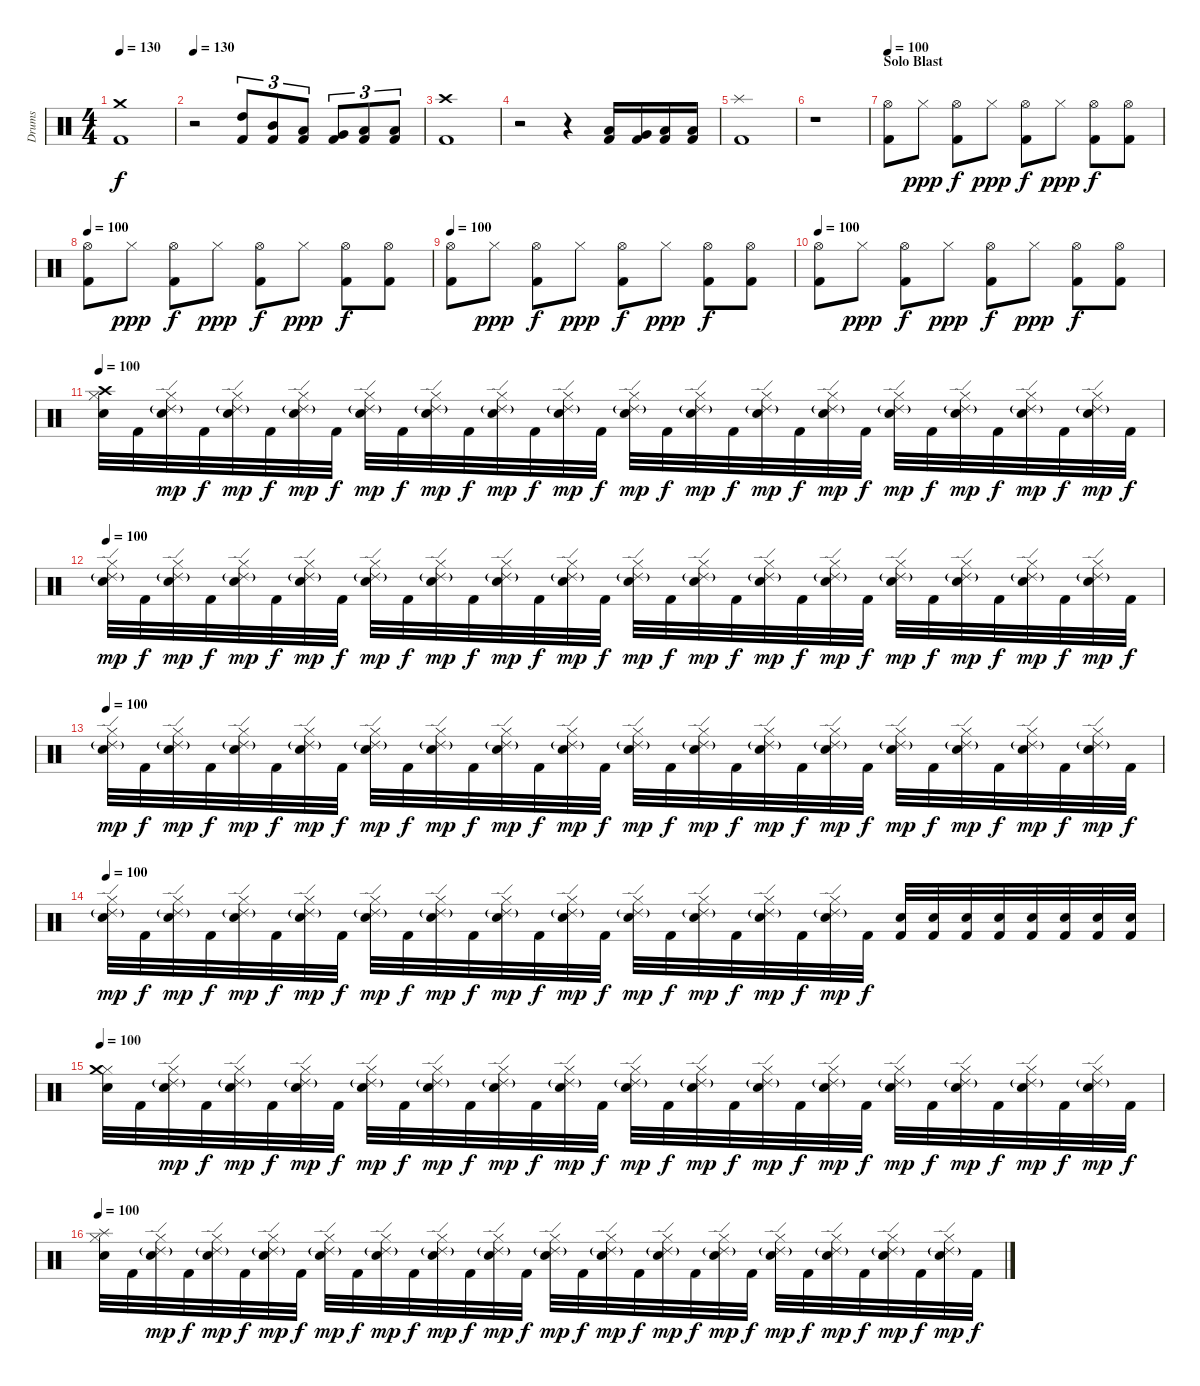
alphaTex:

\track ("Drums" "Drums") {instrument percussion}
\staff {score}
\articulation defaults
\ts (4 4)
\tempo 130
\clef neutral
\ks c
("Kick (hit) 2" "Crash medium (hit)").1{dy f} |
\tempo 130
r.2 ("Kick (hit) 2" "High Tom (hit)").8{tu (3 2)} ("Kick (hit) 2" "Mid Tom (hit)").8{tu (3 2)} ("Kick (hit) 2" "Low Tom (hit)").8{tu (3 2)} ("Kick (hit) 2" "Very Low Tom (hit)").8{tu (3 2)} ("Kick (hit) 2" "Low Floor Tom (hit)").8{tu (3 2)} ("Kick (hit) 2" "Low Floor Tom (hit)").8{tu (3 2)} |
("Kick (hit) 2" "Crash high (hit)").1 |
r.2 r.4 ("Kick (hit) 2" "Low Tom (hit)").16 ("Kick (hit) 2" "Very Low Tom (hit)").16 ("Kick (hit) 2" "Low Floor Tom (hit)").16 ("Kick (hit) 2" "Low Floor Tom (hit)").16 |
("Kick (hit) 2" "Splash (hit)").1 |
r.1 |
\section ("" "Solo Blast")
\tempo 100
("Kick (hit) 2" "Hi-Hat (open)").8 "Hi-Hat (closed)".8{dy ppp} ("Kick (hit) 2" "Hi-Hat (open)").8{dy f} "Hi-Hat (closed)".8{dy ppp} ("Kick (hit) 2" "Hi-Hat (open)").8{dy f} "Hi-Hat (closed)".8{dy ppp} ("Kick (hit) 2" "Hi-Hat (open)").8{dy f} ("Kick (hit) 2" "Hi-Hat (open)").8 |
\tempo 100
("Kick (hit) 2" "Hi-Hat (open)").8 "Hi-Hat (closed)".8{dy ppp} ("Kick (hit) 2" "Hi-Hat (open)").8{dy f} "Hi-Hat (closed)".8{dy ppp} ("Kick (hit) 2" "Hi-Hat (open)").8{dy f} "Hi-Hat (closed)".8{dy ppp} ("Kick (hit) 2" "Hi-Hat (open)").8{dy f} ("Kick (hit) 2" "Hi-Hat (open)").8 |
\tempo 100
("Kick (hit) 2" "Hi-Hat (open)").8 "Hi-Hat (closed)".8{dy ppp} ("Kick (hit) 2" "Hi-Hat (open)").8{dy f} "Hi-Hat (closed)".8{dy ppp} ("Kick (hit) 2" "Hi-Hat (open)").8{dy f} "Hi-Hat (closed)".8{dy ppp} ("Kick (hit) 2" "Hi-Hat (open)").8{dy f} ("Kick (hit) 2" "Hi-Hat (open)").8 |
\tempo 100
("Kick (hit) 2" "Hi-Hat (open)").8 "Hi-Hat (closed)".8{dy ppp} ("Kick (hit) 2" "Hi-Hat (open)").8{dy f} "Hi-Hat (closed)".8{dy ppp} ("Kick (hit) 2" "Hi-Hat (open)").8{dy f} "Hi-Hat (closed)".8{dy ppp} ("Kick (hit) 2" "Hi-Hat (open)").8{dy f} ("Kick (hit) 2" "Hi-Hat (open)").8 |
\section ("" "")
\tempo 100
("Snare (hit) 2" "Hi-Hat (closed)" "Crash high (hit)").32 "Kick (hit) 2".32 ("Snare (hit) 2" "Hi-Hat (closed)" "Ride (edge) 2"{g}).32{dy mp} "Kick (hit) 2".32{dy f} ("Snare (hit) 2" "Hi-Hat (closed)" "Ride (edge) 2"{g}).32{dy mp} "Kick (hit) 2".32{dy f} ("Snare (hit) 2" "Hi-Hat (closed)" "Ride (edge) 2"{g}).32{dy mp} "Kick (hit) 2".32{dy f} ("Snare (hit) 2" "Hi-Hat (closed)" "Ride (edge) 2"{g}).32{dy mp} "Kick (hit) 2".32{dy f} ("Snare (hit) 2" "Hi-Hat (closed)" "Ride (edge) 2"{g}).32{dy mp} "Kick (hit) 2".32{dy f} ("Snare (hit) 2" "Hi-Hat (closed)" "Ride (edge) 2"{g}).32{dy mp} "Kick (hit) 2".32{dy f} ("Snare (hit) 2" "Hi-Hat (closed)" "Ride (edge) 2"{g}).32{dy mp} "Kick (hit) 2".32{dy f} ("Snare (hit) 2" "Hi-Hat (closed)" "Ride (edge) 2"{g}).32{dy mp} "Kick (hit) 2".32{dy f} ("Snare (hit) 2" "Hi-Hat (closed)" "Ride (edge) 2"{g}).32{dy mp} "Kick (hit) 2".32{dy f} ("Snare (hit) 2" "Hi-Hat (closed)" "Ride (edge) 2"{g}).32{dy mp} "Kick (hit) 2".32{dy f} ("Snare (hit) 2" "Hi-Hat (closed)" "Ride (edge) 2"{g}).32{dy mp} "Kick (hit) 2".32{dy f} ("Snare (hit) 2" "Hi-Hat (closed)" "Ride (edge) 2"{g}).32{dy mp} "Kick (hit) 2".32{dy f} ("Snare (hit) 2" "Hi-Hat (closed)" "Ride (edge) 2"{g}).32{dy mp} "Kick (hit) 2".32{dy f} ("Snare (hit) 2" "Hi-Hat (closed)" "Ride (edge) 2"{g}).32{dy mp} "Kick (hit) 2".32{dy f} ("Snare (hit) 2" "Hi-Hat (closed)" "Ride (edge) 2"{g}).32{dy mp} "Kick (hit) 2".32{dy f} |
\tempo 100
("Snare (hit) 2" "Hi-Hat (closed)" "Ride (edge) 2"{g}).32{dy mp} "Kick (hit) 2".32{dy f} ("Snare (hit) 2" "Hi-Hat (closed)" "Ride (edge) 2"{g}).32{dy mp} "Kick (hit) 2".32{dy f} ("Snare (hit) 2" "Hi-Hat (closed)" "Ride (edge) 2"{g}).32{dy mp} "Kick (hit) 2".32{dy f} ("Snare (hit) 2" "Hi-Hat (closed)" "Ride (edge) 2"{g}).32{dy mp} "Kick (hit) 2".32{dy f} ("Snare (hit) 2" "Hi-Hat (closed)" "Ride (edge) 2"{g}).32{dy mp} "Kick (hit) 2".32{dy f} ("Snare (hit) 2" "Hi-Hat (closed)" "Ride (edge) 2"{g}).32{dy mp} "Kick (hit) 2".32{dy f} ("Snare (hit) 2" "Hi-Hat (closed)" "Ride (edge) 2"{g}).32{dy mp} "Kick (hit) 2".32{dy f} ("Snare (hit) 2" "Hi-Hat (closed)" "Ride (edge) 2"{g}).32{dy mp} "Kick (hit) 2".32{dy f} ("Snare (hit) 2" "Hi-Hat (closed)" "Ride (edge) 2"{g}).32{dy mp} "Kick (hit) 2".32{dy f} ("Snare (hit) 2" "Hi-Hat (closed)" "Ride (edge) 2"{g}).32{dy mp} "Kick (hit) 2".32{dy f} ("Snare (hit) 2" "Hi-Hat (closed)" "Ride (edge) 2"{g}).32{dy mp} "Kick (hit) 2".32{dy f} ("Snare (hit) 2" "Hi-Hat (closed)" "Ride (edge) 2"{g}).32{dy mp} "Kick (hit) 2".32{dy f} ("Snare (hit) 2" "Hi-Hat (closed)" "Ride (edge) 2"{g}).32{dy mp} "Kick (hit) 2".32{dy f} ("Snare (hit) 2" "Hi-Hat (closed)" "Ride (edge) 2"{g}).32{dy mp} "Kick (hit) 2".32{dy f} ("Snare (hit) 2" "Hi-Hat (closed)" "Ride (edge) 2"{g}).32{dy mp} "Kick (hit) 2".32{dy f} ("Snare (hit) 2" "Hi-Hat (closed)" "Ride (edge) 2"{g}).32{dy mp} "Kick (hit) 2".32{dy f} |
\tempo 100
("Snare (hit) 2" "Hi-Hat (closed)" "Ride (edge) 2"{g}).32{dy mp} "Kick (hit) 2".32{dy f} ("Snare (hit) 2" "Hi-Hat (closed)" "Ride (edge) 2"{g}).32{dy mp} "Kick (hit) 2".32{dy f} ("Snare (hit) 2" "Hi-Hat (closed)" "Ride (edge) 2"{g}).32{dy mp} "Kick (hit) 2".32{dy f} ("Snare (hit) 2" "Hi-Hat (closed)" "Ride (edge) 2"{g}).32{dy mp} "Kick (hit) 2".32{dy f} ("Snare (hit) 2" "Hi-Hat (closed)" "Ride (edge) 2"{g}).32{dy mp} "Kick (hit) 2".32{dy f} ("Snare (hit) 2" "Hi-Hat (closed)" "Ride (edge) 2"{g}).32{dy mp} "Kick (hit) 2".32{dy f} ("Snare (hit) 2" "Hi-Hat (closed)" "Ride (edge) 2"{g}).32{dy mp} "Kick (hit) 2".32{dy f} ("Snare (hit) 2" "Hi-Hat (closed)" "Ride (edge) 2"{g}).32{dy mp} "Kick (hit) 2".32{dy f} ("Snare (hit) 2" "Hi-Hat (closed)" "Ride (edge) 2"{g}).32{dy mp} "Kick (hit) 2".32{dy f} ("Snare (hit) 2" "Hi-Hat (closed)" "Ride (edge) 2"{g}).32{dy mp} "Kick (hit) 2".32{dy f} ("Snare (hit) 2" "Hi-Hat (closed)" "Ride (edge) 2"{g}).32{dy mp} "Kick (hit) 2".32{dy f} ("Snare (hit) 2" "Hi-Hat (closed)" "Ride (edge) 2"{g}).32{dy mp} "Kick (hit) 2".32{dy f} ("Snare (hit) 2" "Hi-Hat (closed)" "Ride (edge) 2"{g}).32{dy mp} "Kick (hit) 2".32{dy f} ("Snare (hit) 2" "Hi-Hat (closed)" "Ride (edge) 2"{g}).32{dy mp} "Kick (hit) 2".32{dy f} ("Snare (hit) 2" "Hi-Hat (closed)" "Ride (edge) 2"{g}).32{dy mp} "Kick (hit) 2".32{dy f} ("Snare (hit) 2" "Hi-Hat (closed)" "Ride (edge) 2"{g}).32{dy mp} "Kick (hit) 2".32{dy f} |
\tempo 100
("Snare (hit) 2" "Hi-Hat (closed)" "Ride (edge) 2"{g}).32{dy mp} "Kick (hit) 2".32{dy f} ("Snare (hit) 2" "Hi-Hat (closed)" "Ride (edge) 2"{g}).32{dy mp} "Kick (hit) 2".32{dy f} ("Snare (hit) 2" "Hi-Hat (closed)" "Ride (edge) 2"{g}).32{dy mp} "Kick (hit) 2".32{dy f} ("Snare (hit) 2" "Hi-Hat (closed)" "Ride (edge) 2"{g}).32{dy mp} "Kick (hit) 2".32{dy f} ("Snare (hit) 2" "Hi-Hat (closed)" "Ride (edge) 2"{g}).32{dy mp} "Kick (hit) 2".32{dy f} ("Snare (hit) 2" "Hi-Hat (closed)" "Ride (edge) 2"{g}).32{dy mp} "Kick (hit) 2".32{dy f} ("Snare (hit) 2" "Hi-Hat (closed)" "Ride (edge) 2"{g}).32{dy mp} "Kick (hit) 2".32{dy f} ("Snare (hit) 2" "Hi-Hat (closed)" "Ride (edge) 2"{g}).32{dy mp} "Kick (hit) 2".32{dy f} ("Snare (hit) 2" "Hi-Hat (closed)" "Ride (edge) 2"{g}).32{dy mp} "Kick (hit) 2".32{dy f} ("Snare (hit) 2" "Hi-Hat (closed)" "Ride (edge) 2"{g}).32{dy mp} "Kick (hit) 2".32{dy f} ("Snare (hit) 2" "Hi-Hat (closed)" "Ride (edge) 2"{g}).32{dy mp} "Kick (hit) 2".32{dy f} ("Snare (hit) 2" "Hi-Hat (closed)" "Ride (edge) 2"{g}).32{dy mp} "Kick (hit) 2".32{dy f} ("Kick (hit) 2" "Snare (hit) 2").32 ("Kick (hit) 2" "Snare (hit) 2").32 ("Kick (hit) 2" "Snare (hit) 2").32 ("Kick (hit) 2" "Snare (hit) 2").32 ("Kick (hit) 2" "Snare (hit) 2").32 ("Kick (hit) 2" "Snare (hit) 2").32 ("Kick (hit) 2" "Snare (hit) 2").32 ("Kick (hit) 2" "Snare (hit) 2").32 |
\section ("" "")
\tempo 100
("Snare (hit) 2" "Hi-Hat (closed)" "Crash medium (hit)").32 "Kick (hit) 2".32 ("Snare (hit) 2" "Hi-Hat (closed)" "Ride (edge) 2"{g}).32{dy mp} "Kick (hit) 2".32{dy f} ("Snare (hit) 2" "Hi-Hat (closed)" "Ride (edge) 2"{g}).32{dy mp} "Kick (hit) 2".32{dy f} ("Snare (hit) 2" "Hi-Hat (closed)" "Ride (edge) 2"{g}).32{dy mp} "Kick (hit) 2".32{dy f} ("Snare (hit) 2" "Hi-Hat (closed)" "Ride (edge) 2"{g}).32{dy mp} "Kick (hit) 2".32{dy f} ("Snare (hit) 2" "Hi-Hat (closed)" "Ride (edge) 2"{g}).32{dy mp} "Kick (hit) 2".32{dy f} ("Snare (hit) 2" "Hi-Hat (closed)" "Ride (edge) 2"{g}).32{dy mp} "Kick (hit) 2".32{dy f} ("Snare (hit) 2" "Hi-Hat (closed)" "Ride (edge) 2"{g}).32{dy mp} "Kick (hit) 2".32{dy f} ("Snare (hit) 2" "Hi-Hat (closed)" "Ride (edge) 2"{g}).32{dy mp} "Kick (hit) 2".32{dy f} ("Snare (hit) 2" "Hi-Hat (closed)" "Ride (edge) 2"{g}).32{dy mp} "Kick (hit) 2".32{dy f} ("Snare (hit) 2" "Hi-Hat (closed)" "Ride (edge) 2"{g}).32{dy mp} "Kick (hit) 2".32{dy f} ("Snare (hit) 2" "Hi-Hat (closed)" "Ride (edge) 2"{g}).32{dy mp} "Kick (hit) 2".32{dy f} ("Snare (hit) 2" "Hi-Hat (closed)" "Ride (edge) 2"{g}).32{dy mp} "Kick (hit) 2".32{dy f} ("Snare (hit) 2" "Hi-Hat (closed)" "Ride (edge) 2"{g}).32{dy mp} "Kick (hit) 2".32{dy f} ("Snare (hit) 2" "Hi-Hat (closed)" "Ride (edge) 2"{g}).32{dy mp} "Kick (hit) 2".32{dy f} ("Snare (hit) 2" "Hi-Hat (closed)" "Ride (edge) 2"{g}).32{dy mp} "Kick (hit) 2".32{dy f} |
\tempo 100
("Snare (hit) 2" "Hi-Hat (closed)" "Splash (hit)").32 "Kick (hit) 2".32 ("Snare (hit) 2" "Hi-Hat (closed)" "Ride (edge) 2"{g}).32{dy mp} "Kick (hit) 2".32{dy f} ("Snare (hit) 2" "Hi-Hat (closed)" "Ride (edge) 2"{g}).32{dy mp} "Kick (hit) 2".32{dy f} ("Snare (hit) 2" "Hi-Hat (closed)" "Ride (edge) 2"{g}).32{dy mp} "Kick (hit) 2".32{dy f} ("Snare (hit) 2" "Hi-Hat (closed)" "Ride (edge) 2"{g}).32{dy mp} "Kick (hit) 2".32{dy f} ("Snare (hit) 2" "Hi-Hat (closed)" "Ride (edge) 2"{g}).32{dy mp} "Kick (hit) 2".32{dy f} ("Snare (hit) 2" "Hi-Hat (closed)" "Ride (edge) 2"{g}).32{dy mp} "Kick (hit) 2".32{dy f} ("Snare (hit) 2" "Hi-Hat (closed)" "Ride (edge) 2"{g}).32{dy mp} "Kick (hit) 2".32{dy f} ("Snare (hit) 2" "Hi-Hat (closed)" "Ride (edge) 2"{g}).32{dy mp} "Kick (hit) 2".32{dy f} ("Snare (hit) 2" "Hi-Hat (closed)" "Ride (edge) 2"{g}).32{dy mp} "Kick (hit) 2".32{dy f} ("Snare (hit) 2" "Hi-Hat (closed)" "Ride (edge) 2"{g}).32{dy mp} "Kick (hit) 2".32{dy f} ("Snare (hit) 2" "Hi-Hat (closed)" "Ride (edge) 2"{g}).32{dy mp} "Kick (hit) 2".32{dy f} ("Snare (hit) 2" "Hi-Hat (closed)" "Ride (edge) 2"{g}).32{dy mp} "Kick (hit) 2".32{dy f} ("Snare (hit) 2" "Hi-Hat (closed)" "Ride (edge) 2"{g}).32{dy mp} "Kick (hit) 2".32{dy f} ("Snare (hit) 2" "Hi-Hat (closed)" "Ride (edge) 2"{g}).32{dy mp} "Kick (hit) 2".32{dy f} ("Snare (hit) 2" "Hi-Hat (closed)" "Ride (edge) 2"{g}).32{dy mp} "Kick (hit) 2".32{dy f}
